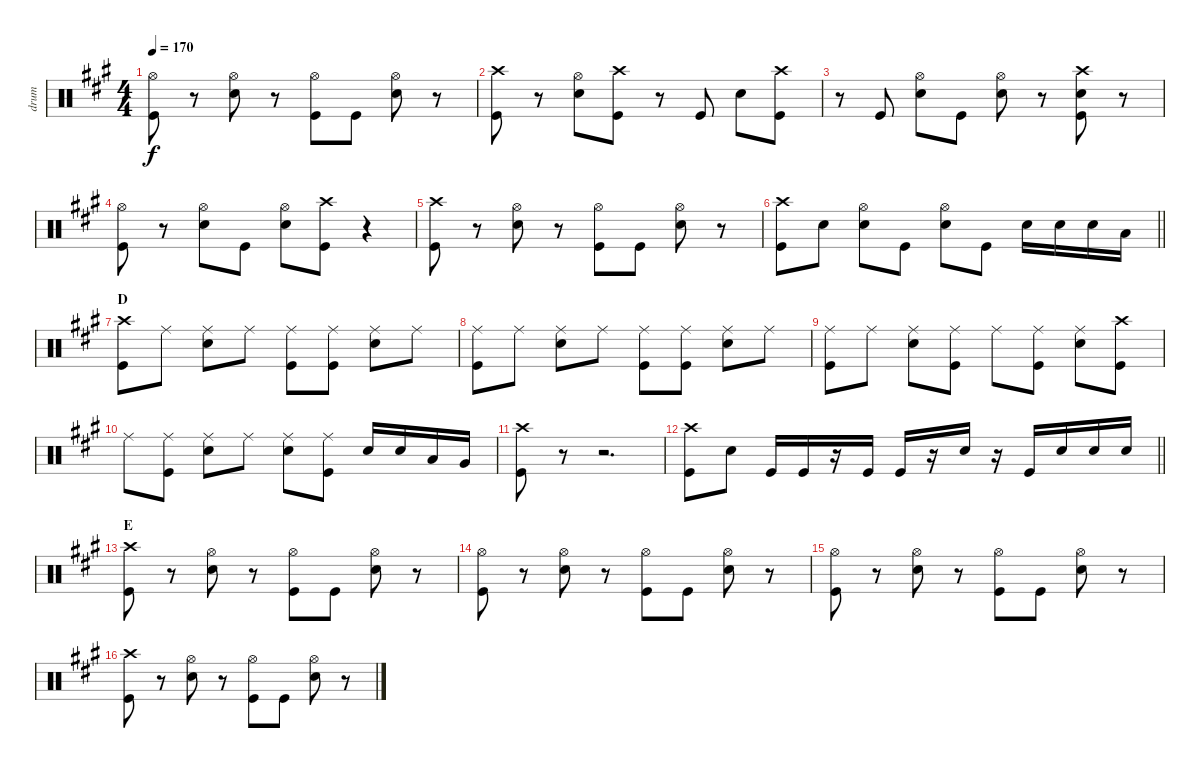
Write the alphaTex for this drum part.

\track ("drum" "drum") {instrument percussion}
\staff {score}
\articulation defaults
\ts (4 4)
\tempo 170
\clef neutral
\ks a
("Hi-Hat (open)" "Kick (hit)").8{dy f} r.8 ("Hi-Hat (open)" "Snare (hit) 2").8 r.8 ("Hi-Hat (open)" "Kick (hit)").8 "Kick (hit)".8 ("Hi-Hat (open)" "Snare (hit) 2").8 r.8 |
("Crash high (hit)" "Kick (hit)").8 r.8 ("Hi-Hat (open)" "Snare (hit) 2").8 ("Crash high (hit)" "Kick (hit)").8 r.8 "Kick (hit)".8 "Snare (hit) 2".8 ("Crash high (hit)" "Kick (hit)").8 |
r.8 "Kick (hit)".8 ("Hi-Hat (open)" "Snare (hit) 2").8 "Kick (hit)".8 ("Hi-Hat (open)" "Snare (hit) 2").8 r.8 ("Crash high (hit)" "Snare (hit) 2" "Kick (hit)").8 r.8 |
("Hi-Hat (open)" "Kick (hit)").8 r.8 ("Hi-Hat (open)" "Snare (hit) 2").8 "Kick (hit)".8 ("Hi-Hat (open)" "Snare (hit) 2").8 ("Crash high (hit)" "Kick (hit)").8 r.4 |
("Crash high (hit)" "Kick (hit)").8 r.8 ("Hi-Hat (open)" "Snare (hit) 2").8 r.8 ("Hi-Hat (open)" "Kick (hit)").8 "Kick (hit)".8 ("Hi-Hat (open)" "Snare (hit) 2").8 r.8 |
\barLineRight lightlight
("Crash high (hit)" "Kick (hit)").8 "Snare (hit) 2".8 ("Hi-Hat (open)" "Snare (hit) 2").8 "Kick (hit)".8 ("Hi-Hat (open)" "Snare (hit) 2").8 "Kick (hit)".8 "Snare (hit) 2".16 "Snare (hit) 2".16 "Snare (hit) 2".16 "Low Tom (hit)".16 |
\section ("" "D")
("Crash high (hit)" "Kick (hit)").8 "Ride (middle)".8 ("Ride (middle)" "Snare (hit) 2").8 "Ride (middle)".8 ("Ride (middle)" "Kick (hit)").8 ("Ride (middle)" "Kick (hit)").8 ("Ride (middle)" "Snare (hit) 2").8 "Ride (middle)".8 |
("Ride (middle)" "Kick (hit)").8 "Ride (middle)".8 ("Ride (middle)" "Snare (hit) 2").8 "Ride (middle)".8 ("Ride (middle)" "Kick (hit)").8 ("Ride (middle)" "Kick (hit)").8 ("Ride (middle)" "Snare (hit) 2").8 "Ride (middle)".8 |
("Ride (middle)" "Kick (hit)").8 "Ride (middle)".8 ("Ride (middle)" "Snare (hit) 2").8 ("Ride (middle)" "Kick (hit)").8 "Ride (middle)".8 ("Ride (middle)" "Kick (hit)").8 ("Ride (middle)" "Snare (hit) 2").8 ("Crash high (hit)" "Kick (hit)").8 |
"Ride (middle)".8 ("Ride (middle)" "Kick (hit)").8 ("Ride (middle)" "Snare (hit) 2").8 "Ride (middle)".8 ("Ride (middle)" "Snare (hit) 2").8 ("Ride (middle)" "Kick (hit)").8 "Snare (hit) 2".16 "Snare (hit) 2".16 "Low Tom (hit)".16 "Very Low Tom (hit)".16 |
("Crash high (hit)" "Kick (hit)").8 r.8 r.2{d} |
\barLineRight lightlight
("Crash high (hit)" "Kick (hit)").8 "Snare (hit) 2".8 "Kick (hit)".16 "Kick (hit)".16 r.16 "Kick (hit)".16 "Kick (hit)".16 r.16 "Snare (hit) 2".16 r.16 "Kick (hit)".16 "Snare (hit) 2".16 "Snare (hit) 2".16 "Snare (hit) 2".16 |
\section ("" "E")
("Crash high (hit)" "Kick (hit)").8 r.8 ("Hi-Hat (open)" "Snare (hit) 2").8 r.8 ("Hi-Hat (open)" "Kick (hit)").8 "Kick (hit)".8 ("Hi-Hat (open)" "Snare (hit) 2").8 r.8 |
("Hi-Hat (open)" "Kick (hit)").8 r.8 ("Hi-Hat (open)" "Snare (hit) 2").8 r.8 ("Hi-Hat (open)" "Kick (hit)").8 "Kick (hit)".8 ("Hi-Hat (open)" "Snare (hit) 2").8 r.8 |
("Hi-Hat (open)" "Kick (hit)").8 r.8 ("Hi-Hat (open)" "Snare (hit) 2").8 r.8 ("Hi-Hat (open)" "Kick (hit)").8 "Kick (hit)".8 ("Hi-Hat (open)" "Snare (hit) 2").8 r.8 |
("Crash high (hit)" "Kick (hit)").8 r.8 ("Hi-Hat (open)" "Snare (hit) 2").8 r.8 ("Hi-Hat (open)" "Kick (hit)").8 "Kick (hit)".8 ("Hi-Hat (open)" "Snare (hit) 2").8 r.8
